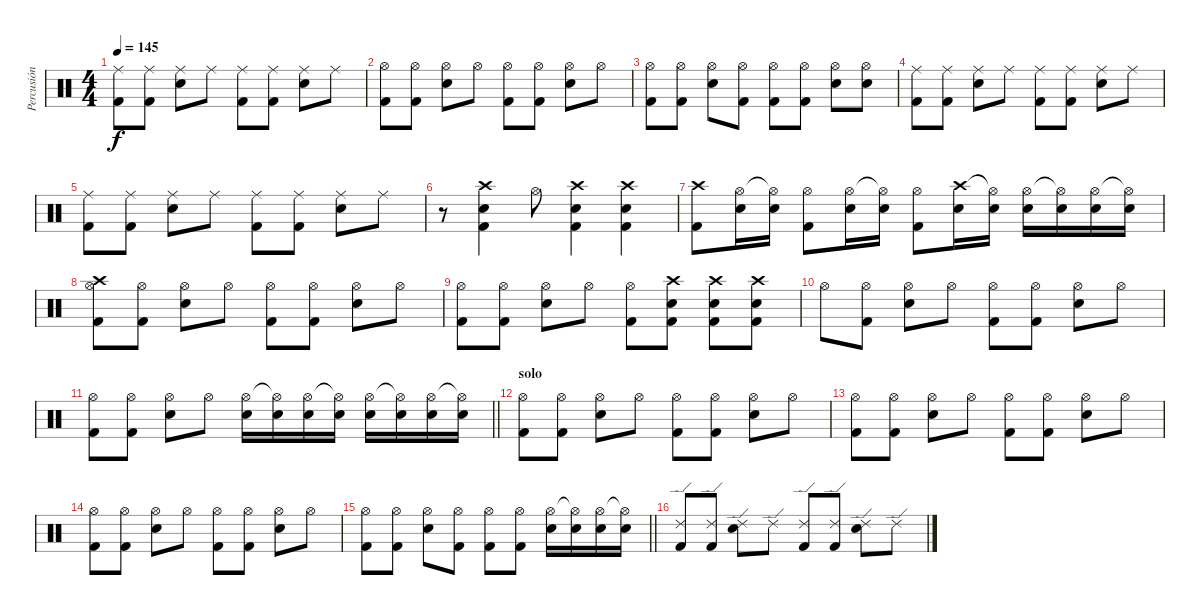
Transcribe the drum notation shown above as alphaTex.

\track ("Percusión" "Percusión") {instrument percussion}
\staff {score}
\articulation defaults
\ts (4 4)
\tempo 145
\clef neutral
\ks c
("Ride (middle)" "Kick (hit) 2").8{dy f} ("Ride (middle)" "Kick (hit) 2").8 ("Ride (middle)" "Snare (hit) 2").8 "Ride (middle)".8 ("Ride (middle)" "Kick (hit) 2").8 ("Ride (middle)" "Kick (hit) 2").8 ("Ride (middle)" "Snare (hit) 2").8 "Ride (middle)".8 |
("Hi-Hat (open)" "Kick (hit) 2").8 ("Hi-Hat (open)" "Kick (hit) 2").8 ("Hi-Hat (open)" "Snare (hit) 2").8 "Hi-Hat (open)".8 ("Hi-Hat (open)" "Kick (hit) 2").8 ("Hi-Hat (open)" "Kick (hit) 2").8 ("Hi-Hat (open)" "Snare (hit) 2").8 "Hi-Hat (open)".8 |
("Hi-Hat (open)" "Kick (hit) 2").8 ("Hi-Hat (open)" "Kick (hit) 2").8 ("Hi-Hat (open)" "Snare (hit) 2").8 ("Hi-Hat (open)" "Kick (hit) 2").8 ("Hi-Hat (open)" "Kick (hit) 2").8 ("Hi-Hat (open)" "Kick (hit) 2").8 ("Hi-Hat (open)" "Snare (hit) 2").8 ("Hi-Hat (open)" "Snare (hit) 2").8 |
("Ride (middle)" "Kick (hit) 2").8 ("Ride (middle)" "Kick (hit) 2").8 ("Ride (middle)" "Snare (hit) 2").8 "Ride (middle)".8 ("Ride (middle)" "Kick (hit) 2").8 ("Ride (middle)" "Kick (hit) 2").8 ("Ride (middle)" "Snare (hit) 2").8 "Ride (middle)".8 |
("Ride (middle)" "Kick (hit) 2").8 ("Ride (middle)" "Kick (hit) 2").8 ("Ride (middle)" "Snare (hit) 2").8 "Ride (middle)".8 ("Ride (middle)" "Kick (hit) 2").8 ("Ride (middle)" "Kick (hit) 2").8 ("Ride (middle)" "Snare (hit) 2").8 "Ride (middle)".8 |
r.8 ("Crash high (hit)" "Snare (hit) 2" "Kick (hit) 2").4 "Hi-Hat (open)".8 ("Crash high (hit)" "Snare (hit) 2" "Kick (hit) 2").4 ("Crash high (hit)" "Snare (hit) 2" "Kick (hit) 2").4 |
("Crash high (hit)" "Kick (hit) 2").8 ("Hi-Hat (open)" "Snare (hit) 2").16 ("Hi-Hat (open)"{t} "Snare (hit) 2").16 ("Hi-Hat (open)" "Kick (hit) 2").8 ("Hi-Hat (open)" "Snare (hit) 2").16 ("Hi-Hat (open)"{t} "Snare (hit) 2").16 ("Hi-Hat (open)" "Kick (hit) 2").8 ("Crash high (hit)" "Snare (hit) 2").16 ("Hi-Hat (open)"{t} "Snare (hit) 2").16 ("Hi-Hat (open)" "Snare (hit) 2").16 ("Hi-Hat (open)"{t} "Snare (hit) 2").16 ("Hi-Hat (open)" "Snare (hit) 2").16 ("Hi-Hat (open)"{t} "Snare (hit) 2").16 |
("Crash high (hit)" "Hi-Hat (open)" "Kick (hit) 2").8 ("Hi-Hat (open)" "Kick (hit) 2").8 ("Hi-Hat (open)" "Snare (hit) 2").8 "Hi-Hat (open)".8 ("Hi-Hat (open)" "Kick (hit) 2").8 ("Hi-Hat (open)" "Kick (hit) 2").8 ("Hi-Hat (open)" "Snare (hit) 2").8 "Hi-Hat (open)".8 |
("Hi-Hat (open)" "Kick (hit) 2").8 ("Hi-Hat (open)" "Kick (hit) 2").8 ("Hi-Hat (open)" "Snare (hit) 2").8 "Hi-Hat (open)".8 ("Hi-Hat (open)" "Kick (hit) 2").8 ("Crash high (hit)" "Snare (hit) 2" "Kick (hit) 2").8 ("Crash high (hit)" "Snare (hit) 2" "Kick (hit) 2").8 ("Crash high (hit)" "Snare (hit) 2" "Kick (hit) 2").8 |
"Hi-Hat (open)".8 ("Hi-Hat (open)" "Kick (hit) 2").8 ("Hi-Hat (open)" "Snare (hit) 2").8 "Hi-Hat (open)".8 ("Hi-Hat (open)" "Kick (hit) 2").8 ("Hi-Hat (open)" "Kick (hit) 2").8 ("Hi-Hat (open)" "Snare (hit) 2").8 "Hi-Hat (open)".8 |
\barLineRight lightlight
("Hi-Hat (open)" "Kick (hit) 2").8 ("Hi-Hat (open)" "Kick (hit) 2").8 ("Hi-Hat (open)" "Snare (hit) 2").8 "Hi-Hat (open)".8 ("Hi-Hat (open)" "Snare (hit) 2").16 ("Hi-Hat (open)"{t} "Snare (hit) 2").16 ("Hi-Hat (open)" "Snare (hit) 2").16 ("Hi-Hat (open)"{t} "Snare (hit) 2").16 ("Hi-Hat (open)" "Snare (hit) 2").16 ("Hi-Hat (open)"{t} "Snare (hit) 2").16 ("Hi-Hat (open)" "Snare (hit) 2").16 ("Hi-Hat (open)"{t} "Snare (hit) 2").16 |
\section ("" "solo")
("Hi-Hat (open)" "Kick (hit) 2").8 ("Hi-Hat (open)" "Kick (hit) 2").8 ("Hi-Hat (open)" "Snare (hit) 2").8 "Hi-Hat (open)".8 ("Hi-Hat (open)" "Kick (hit) 2").8 ("Hi-Hat (open)" "Kick (hit) 2").8 ("Hi-Hat (open)" "Snare (hit) 2").8 "Hi-Hat (open)".8 |
("Hi-Hat (open)" "Kick (hit) 2").8 ("Hi-Hat (open)" "Kick (hit) 2").8 ("Hi-Hat (open)" "Snare (hit) 2").8 "Hi-Hat (open)".8 ("Hi-Hat (open)" "Kick (hit) 2").8 ("Hi-Hat (open)" "Kick (hit) 2").8 ("Hi-Hat (open)" "Snare (hit) 2").8 "Hi-Hat (open)".8 |
("Hi-Hat (open)" "Kick (hit) 2").8 ("Hi-Hat (open)" "Kick (hit) 2").8 ("Hi-Hat (open)" "Snare (hit) 2").8 "Hi-Hat (open)".8 ("Hi-Hat (open)" "Kick (hit) 2").8 ("Hi-Hat (open)" "Kick (hit) 2").8 ("Hi-Hat (open)" "Snare (hit) 2").8 "Hi-Hat (open)".8 |
\barLineRight lightlight
("Hi-Hat (open)" "Kick (hit) 2").8 ("Hi-Hat (open)" "Kick (hit) 2").8 ("Hi-Hat (open)" "Snare (hit) 2").8 ("Hi-Hat (open)" "Kick (hit) 2").8 ("Hi-Hat (open)" "Kick (hit) 2").8 ("Hi-Hat (open)" "Kick (hit) 2").8 ("Hi-Hat (open)" "Snare (hit) 2").16 ("Hi-Hat (open)"{t} "Snare (hit) 2").16 ("Hi-Hat (open)" "Snare (hit) 2").16 ("Hi-Hat (open)"{t} "Snare (hit) 2").16 |
("Ride (edge) 2" "Kick (hit) 2").8 ("Ride (edge) 2" "Kick (hit) 2").8 ("Ride (edge) 2" "Snare (hit) 2").8 "Ride (edge) 2".8 ("Ride (edge) 2" "Kick (hit) 2").8 ("Ride (edge) 2" "Kick (hit) 2").8 ("Ride (edge) 2" "Snare (hit) 2").8 "Ride (edge) 2".8
